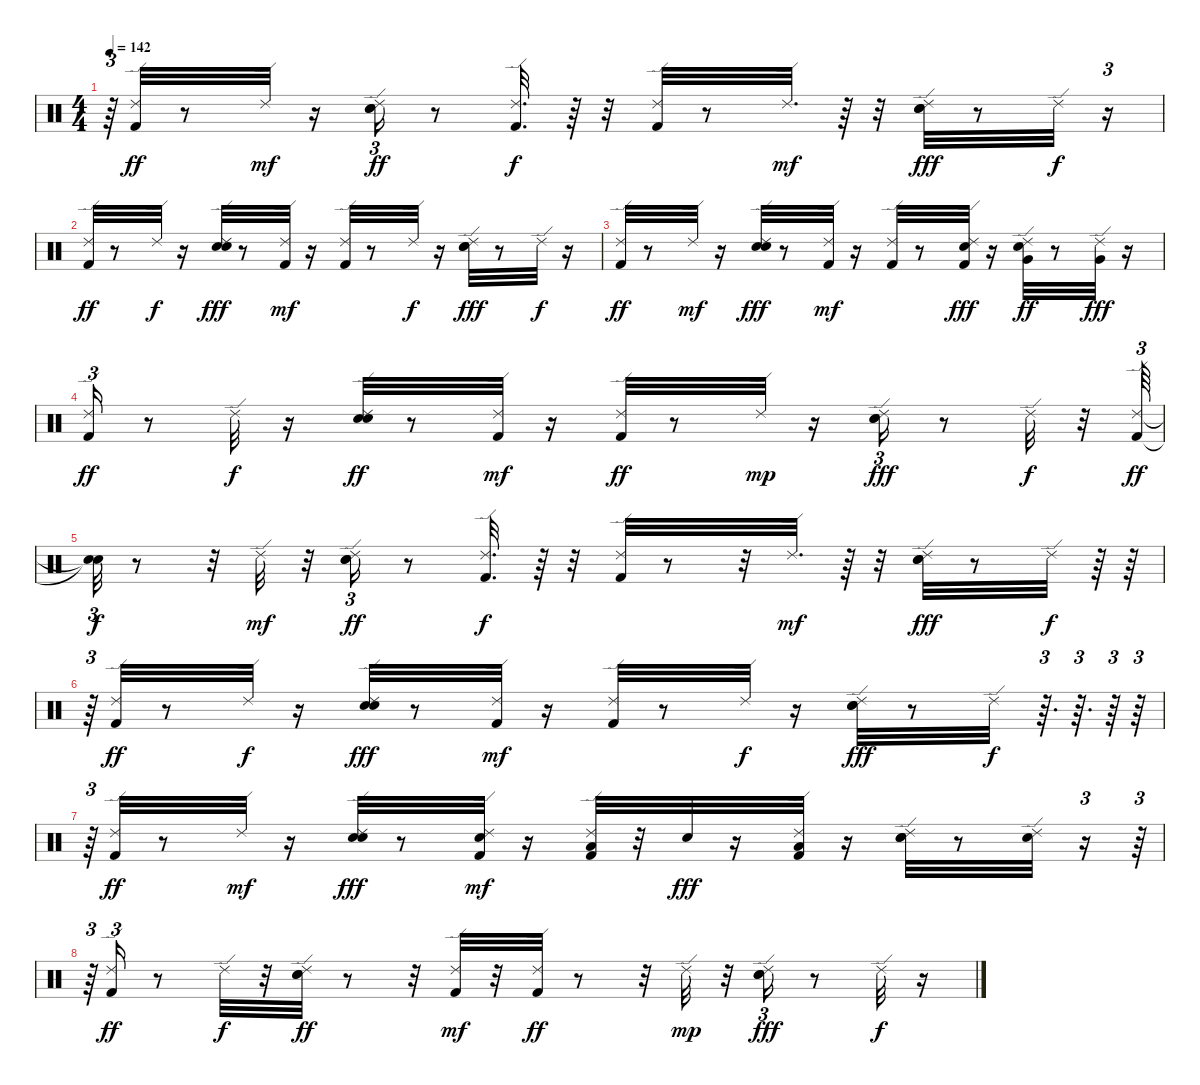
\track "" {instrument percussion}
\staff {score}
\articulation defaults
\ts (4 4)
\tempo 142
\clef neutral
\ks c
r.64{tu (3 2) dy f} ("Kick (hit) 2" "Ride (edge) 2").32{dy ff} r.8 "Ride (edge) 2".32{dy mf} r.16 ("Hand Clap (hit)" "Electric Snare (hit)" "Ride (edge) 2").16{tu (3 2) dy ff} r.8 ("Kick (hit) 2" "Ride (edge) 2").32{d dy f} r.64 r.32 ("Kick (hit) 2" "Ride (edge) 2").32 r.8 "Ride (edge) 2".32{d dy mf} r.64 r.32 ("Hand Clap (hit)" "Electric Snare (hit)" "Ride (edge) 2").32{dy fff} r.8 "Ride (edge) 2".32{dy f} r.16{tu (3 2)} |
("Ride (edge) 2" "Kick (hit) 2").32{dy ff} r.8 "Ride (edge) 2".32{dy f} r.16 ("Electric Snare (hit)" "Hand Clap (hit)" "Ride (edge) 2").32{dy fff} r.8 ("Kick (hit) 2" "Ride (edge) 2").32{dy mf} r.16 ("Kick (hit) 2" "Ride (edge) 2").32 r.8 "Ride (edge) 2".32{dy f} r.16 ("Electric Snare (hit)" "Hand Clap (hit)" "Ride (edge) 2").32{dy fff} r.8 "Ride (edge) 2".32{dy f} r.16 |
("Kick (hit) 2" "Ride (edge) 2").32{dy ff} r.8 "Ride (edge) 2".32{dy mf} r.16 ("Hand Clap (hit)" "Electric Snare (hit)" "Ride (edge) 2").32{dy fff} r.8 ("Kick (hit) 2" "Ride (edge) 2").32{dy mf} r.16 ("Kick (hit) 2" "Ride (edge) 2").32 r.8 ("Electric Snare (hit)" "Ride (edge) 2" "Kick (hit) 2").32{dy fff} r.16 ("Very Low Tom (hit)" "Hand Clap (hit)" "Ride (edge) 2").32{dy ff} r.8 ("Very Low Tom (hit)" "Ride (edge) 2").32{dy fff} r.16 |
("Ride (edge) 2" "Kick (hit) 2").16{tu (3 2) dy ff} r.8 "Ride (edge) 2".32{dy f} r.16 ("Hand Clap (hit)" "Electric Snare (hit)" "Ride (edge) 2").32{dy ff} r.8 ("Kick (hit) 2" "Ride (edge) 2").32{dy mf} r.16 ("Kick (hit) 2" "Ride (edge) 2").32{dy ff} r.8 "Ride (edge) 2".32{dy mp} r.16 ("Hand Clap (hit)" "Electric Snare (hit)" "Ride (edge) 2").16{tu (3 2) dy fff} r.8 "Ride (edge) 2".32{dy f} r.32 ("Kick (hit) 2" "Ride (edge) 2").64{tu (3 2) dy ff} |
("Snare (hit)"{t} "Snare (hit)"{t}).32{tu (3 2) dy f} r.8 r.32 "Ride (edge) 2".32{dy mf} r.32 ("Hand Clap (hit)" "Electric Snare (hit)" "Ride (edge) 2").16{tu (3 2) dy ff} r.8 ("Kick (hit) 2" "Ride (edge) 2").32{d dy f} r.64 r.32 ("Kick (hit) 2" "Ride (edge) 2").32 r.8 r.32 "Ride (edge) 2".32{d dy mf} r.64 r.32 ("Hand Clap (hit)" "Electric Snare (hit)" "Ride (edge) 2").32{dy fff} r.8 "Ride (edge) 2".32{dy f} r.64 r.64 |
r.64{tu (3 2)} ("Ride (edge) 2" "Kick (hit) 2").32{dy ff} r.8 "Ride (edge) 2".32{dy f} r.16 ("Electric Snare (hit)" "Hand Clap (hit)" "Ride (edge) 2").32{dy fff} r.8 ("Kick (hit) 2" "Ride (edge) 2").32{dy mf} r.16 ("Kick (hit) 2" "Ride (edge) 2").32 r.8 "Ride (edge) 2".32{dy f} r.16 ("Electric Snare (hit)" "Hand Clap (hit)" "Ride (edge) 2").32{dy fff} r.8 "Ride (edge) 2".32{dy f} r.64{d tu (3 2)} r.64{d tu (3 2)} r.64{tu (3 2)} r.64{tu (3 2)} |
r.64{tu (3 2)} ("Kick (hit) 2" "Ride (edge) 2").32{dy ff} r.8 "Ride (edge) 2".32{dy mf} r.16 ("Hand Clap (hit)" "Electric Snare (hit)" "Ride (edge) 2").32{dy fff} r.8 ("Kick (hit) 2" "Electric Snare (hit)" "Ride (edge) 2").32{dy mf} r.16 ("Low Tom (hit)" "Kick (hit) 2" "Ride (edge) 2").32 r.32 "Electric Snare (hit)".32{dy fff} r.16 ("Low Tom (hit)" "Ride (edge) 2" "Kick (hit) 2").32 r.16 ("Electric Snare (hit)" "Hand Clap (hit)" "Ride (edge) 2").32 r.8 ("Electric Snare (hit)" "Ride (edge) 2").32 r.16{tu (3 2)} r.64{tu (3 2)} |
r.64{tu (3 2)} ("Ride (edge) 2" "Kick (hit) 2").16{tu (3 2) dy ff} r.8 "Ride (edge) 2".32{dy f} r.32 ("Hand Clap (hit)" "Electric Snare (hit)" "Ride (edge) 2").32{dy ff} r.8 r.32 ("Kick (hit) 2" "Ride (edge) 2").32{dy mf} r.32 ("Kick (hit) 2" "Ride (edge) 2").32{dy ff} r.8 r.32 "Ride (edge) 2".32{dy mp} r.32 ("Hand Clap (hit)" "Electric Snare (hit)" "Ride (edge) 2").16{tu (3 2) dy fff} r.8 "Ride (edge) 2".32{dy f} r.16
